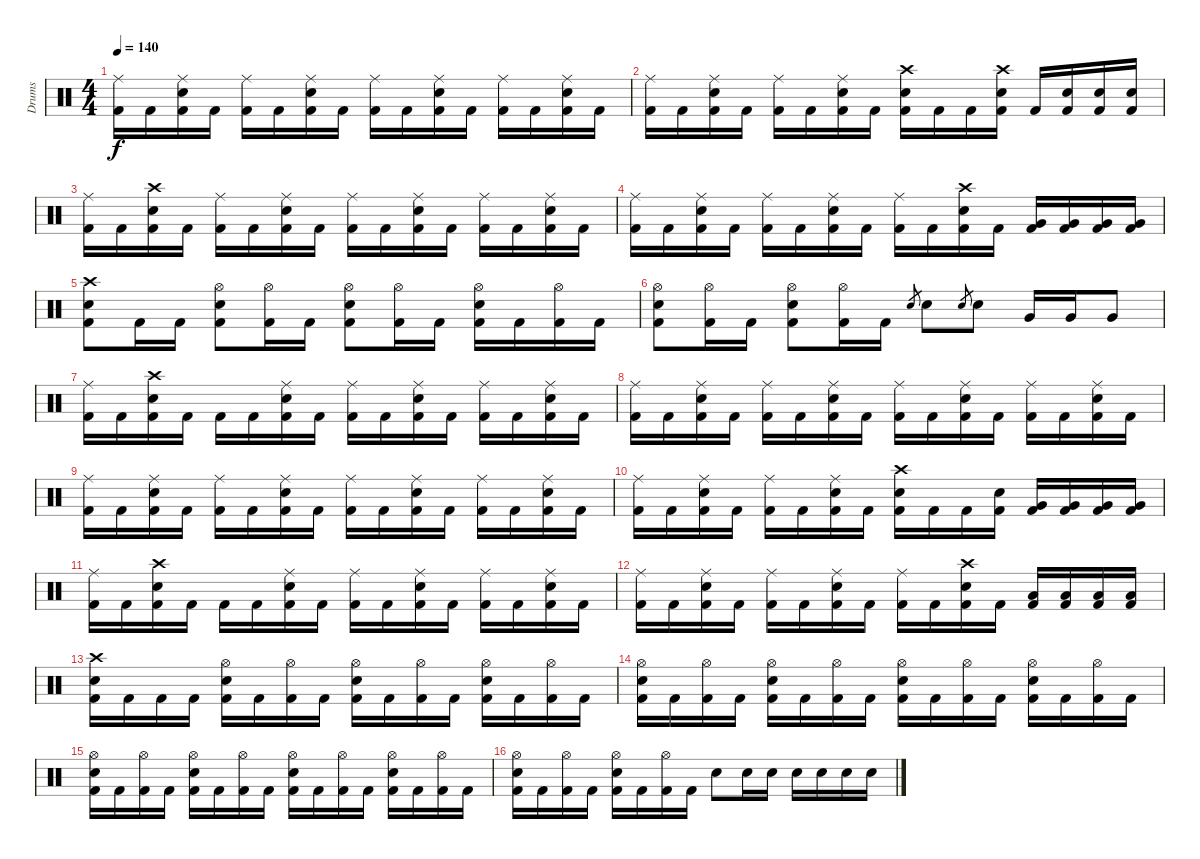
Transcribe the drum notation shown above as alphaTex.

\track ("Drums" "Drums") {instrument percussion}
\staff {score}
\articulation defaults
\ts (4 4)
\tempo 140
\clef neutral
\ks c
("Ride (middle)" "Kick (hit) 2").16{dy f} "Kick (hit) 2".16 ("Ride (middle)" "Electric Snare (hit)" "Kick (hit) 2").16 "Kick (hit) 2".16 ("Ride (middle)" "Kick (hit) 2").16 "Kick (hit) 2".16 ("Ride (middle)" "Electric Snare (hit)" "Kick (hit) 2").16 "Kick (hit) 2".16 ("Ride (middle)" "Kick (hit) 2").16 "Kick (hit) 2".16 ("Ride (middle)" "Electric Snare (hit)" "Kick (hit) 2").16 "Kick (hit) 2".16 ("Ride (middle)" "Kick (hit) 2").16 "Kick (hit) 2".16 ("Ride (middle)" "Electric Snare (hit)" "Kick (hit) 2").16 "Kick (hit) 2".16 |
("Ride (middle)" "Kick (hit) 2").16 "Kick (hit) 2".16 ("Ride (middle)" "Electric Snare (hit)" "Kick (hit) 2").16 "Kick (hit) 2".16 ("Ride (middle)" "Kick (hit) 2").16 "Kick (hit) 2".16 ("Ride (middle)" "Electric Snare (hit)" "Kick (hit) 2").16 "Kick (hit) 2".16 ("Crash high (hit)" "Electric Snare (hit)" "Kick (hit) 2").16 "Kick (hit) 2".16 "Kick (hit) 2".16 ("Crash high (hit)" "Electric Snare (hit)" "Kick (hit) 2").16 "Kick (hit) 2".16 ("Electric Snare (hit)" "Kick (hit) 2").16 ("Electric Snare (hit)" "Kick (hit) 2").16 ("Electric Snare (hit)" "Kick (hit) 2").16 |
("Ride (middle)" "Kick (hit) 2").16 "Kick (hit) 2".16 ("Crash high (hit)" "Electric Snare (hit)" "Kick (hit) 2").16 "Kick (hit) 2".16 ("Ride (middle)" "Kick (hit) 2").16 "Kick (hit) 2".16 ("Ride (middle)" "Electric Snare (hit)" "Kick (hit) 2").16 "Kick (hit) 2".16 ("Ride (middle)" "Kick (hit) 2").16 "Kick (hit) 2".16 ("Ride (middle)" "Electric Snare (hit)" "Kick (hit) 2").16 "Kick (hit) 2".16 ("Ride (middle)" "Kick (hit) 2").16 "Kick (hit) 2".16 ("Ride (middle)" "Electric Snare (hit)" "Kick (hit) 2").16 "Kick (hit) 2".16 |
("Ride (middle)" "Kick (hit) 2").16 "Kick (hit) 2".16 ("Ride (middle)" "Electric Snare (hit)" "Kick (hit) 2").16 "Kick (hit) 2".16 ("Ride (middle)" "Kick (hit) 2").16 "Kick (hit) 2".16 ("Ride (middle)" "Electric Snare (hit)" "Kick (hit) 2").16 "Kick (hit) 2".16 ("Ride (middle)" "Kick (hit) 2").16 "Kick (hit) 2".16 ("Crash high (hit)" "Electric Snare (hit)" "Kick (hit) 2").16 "Kick (hit) 2".16 ("Very Low Tom (hit)" "Kick (hit) 2").16 ("Very Low Tom (hit)" "Kick (hit) 2").16 ("Very Low Tom (hit)" "Kick (hit) 2").16 ("Very Low Tom (hit)" "Kick (hit) 2").16 |
("Crash high (hit)" "Electric Snare (hit)" "Kick (hit) 2").8 "Kick (hit) 2".16 "Kick (hit) 2".16 ("Hi-Hat (open)" "Electric Snare (hit)" "Kick (hit) 2").8 ("Hi-Hat (open)" "Kick (hit) 2").16 "Kick (hit) 2".16 ("Hi-Hat (open)" "Electric Snare (hit)" "Kick (hit) 2").8 ("Hi-Hat (open)" "Kick (hit) 2").16 "Kick (hit) 2".16 ("Hi-Hat (open)" "Electric Snare (hit)" "Kick (hit) 2").16 "Kick (hit) 2".16 ("Hi-Hat (open)" "Kick (hit) 2").16 "Kick (hit) 2".16 |
("Hi-Hat (open)" "Electric Snare (hit)" "Kick (hit) 2").8 ("Hi-Hat (open)" "Kick (hit) 2").16 "Kick (hit) 2".16 ("Hi-Hat (open)" "Electric Snare (hit)" "Kick (hit) 2").8 ("Hi-Hat (open)" "Kick (hit) 2").16 "Kick (hit) 2".16 "Electric Snare (hit)".8{gr} "Electric Snare (hit)".8 "Electric Snare (hit)".8{gr} "Electric Snare (hit)".8 "Very Low Tom (hit)".16 "Very Low Tom (hit)".16 "Very Low Tom (hit)".8 |
("Ride (middle)" "Kick (hit) 2").16 "Kick (hit) 2".16 ("Crash high (hit)" "Electric Snare (hit)" "Kick (hit) 2").16 "Kick (hit) 2".16 "Kick (hit) 2".16 "Kick (hit) 2".16 ("Ride (middle)" "Electric Snare (hit)" "Kick (hit) 2").16 "Kick (hit) 2".16 ("Ride (middle)" "Kick (hit) 2").16 "Kick (hit) 2".16 ("Ride (middle)" "Electric Snare (hit)" "Kick (hit) 2").16 "Kick (hit) 2".16 ("Ride (middle)" "Kick (hit) 2").16 "Kick (hit) 2".16 ("Ride (middle)" "Electric Snare (hit)" "Kick (hit) 2").16 "Kick (hit) 2".16 |
("Ride (middle)" "Kick (hit) 2").16 "Kick (hit) 2".16 ("Ride (middle)" "Electric Snare (hit)" "Kick (hit) 2").16 "Kick (hit) 2".16 ("Ride (middle)" "Kick (hit) 2").16 "Kick (hit) 2".16 ("Ride (middle)" "Electric Snare (hit)" "Kick (hit) 2").16 "Kick (hit) 2".16 ("Ride (middle)" "Kick (hit) 2").16 "Kick (hit) 2".16 ("Ride (middle)" "Electric Snare (hit)" "Kick (hit) 2").16 "Kick (hit) 2".16 ("Ride (middle)" "Kick (hit) 2").16 "Kick (hit) 2".16 ("Ride (middle)" "Electric Snare (hit)" "Kick (hit) 2").16 "Kick (hit) 2".16 |
("Ride (middle)" "Kick (hit) 2").16 "Kick (hit) 2".16 ("Ride (middle)" "Electric Snare (hit)" "Kick (hit) 2").16 "Kick (hit) 2".16 ("Ride (middle)" "Kick (hit) 2").16 "Kick (hit) 2".16 ("Ride (middle)" "Electric Snare (hit)" "Kick (hit) 2").16 "Kick (hit) 2".16 ("Ride (middle)" "Kick (hit) 2").16 "Kick (hit) 2".16 ("Ride (middle)" "Electric Snare (hit)" "Kick (hit) 2").16 "Kick (hit) 2".16 ("Ride (middle)" "Kick (hit) 2").16 "Kick (hit) 2".16 ("Ride (middle)" "Electric Snare (hit)" "Kick (hit) 2").16 "Kick (hit) 2".16 |
("Ride (middle)" "Kick (hit) 2").16 "Kick (hit) 2".16 ("Ride (middle)" "Electric Snare (hit)" "Kick (hit) 2").16 "Kick (hit) 2".16 ("Ride (middle)" "Kick (hit) 2").16 "Kick (hit) 2".16 ("Ride (middle)" "Electric Snare (hit)" "Kick (hit) 2").16 "Kick (hit) 2".16 ("Crash high (hit)" "Electric Snare (hit)" "Kick (hit) 2").16 "Kick (hit) 2".16 "Kick (hit) 2".16 ("Electric Snare (hit)" "Kick (hit) 2").16 ("Very Low Tom (hit)" "Kick (hit) 2").16 ("Very Low Tom (hit)" "Kick (hit) 2").16 ("Very Low Tom (hit)" "Kick (hit) 2").16 ("Very Low Tom (hit)" "Kick (hit) 2").16 |
("Ride (middle)" "Kick (hit) 2").16 "Kick (hit) 2".16 ("Crash high (hit)" "Electric Snare (hit)" "Kick (hit) 2").16 "Kick (hit) 2".16 "Kick (hit) 2".16 "Kick (hit) 2".16 ("Ride (middle)" "Electric Snare (hit)" "Kick (hit) 2").16 "Kick (hit) 2".16 ("Ride (middle)" "Kick (hit) 2").16 "Kick (hit) 2".16 ("Ride (middle)" "Electric Snare (hit)" "Kick (hit) 2").16 "Kick (hit) 2".16 ("Ride (middle)" "Kick (hit) 2").16 "Kick (hit) 2".16 ("Ride (middle)" "Electric Snare (hit)" "Kick (hit) 2").16 "Kick (hit) 2".16 |
("Ride (middle)" "Kick (hit) 2").16 "Kick (hit) 2".16 ("Ride (middle)" "Electric Snare (hit)" "Kick (hit) 2").16 "Kick (hit) 2".16 ("Ride (middle)" "Kick (hit) 2").16 "Kick (hit) 2".16 ("Ride (middle)" "Electric Snare (hit)" "Kick (hit) 2").16 "Kick (hit) 2".16 ("Ride (middle)" "Kick (hit) 2").16 "Kick (hit) 2".16 ("Crash high (hit)" "Electric Snare (hit)" "Kick (hit) 2").16 "Kick (hit) 2".16 ("Low Tom (hit)" "Kick (hit) 2").16 ("Low Tom (hit)" "Kick (hit) 2").16 ("Low Tom (hit)" "Kick (hit) 2").16 ("Low Tom (hit)" "Kick (hit) 2").16 |
("Crash high (hit)" "Electric Snare (hit)" "Kick (hit) 2").16 "Kick (hit) 2".16 "Kick (hit) 2".16 "Kick (hit) 2".16 ("Hi-Hat (open)" "Electric Snare (hit)" "Kick (hit) 2").16 "Kick (hit) 2".16 ("Hi-Hat (open)" "Kick (hit) 2").16 "Kick (hit) 2".16 ("Hi-Hat (open)" "Electric Snare (hit)" "Kick (hit) 2").16 "Kick (hit) 2".16 ("Hi-Hat (open)" "Kick (hit) 2").16 "Kick (hit) 2".16 ("Hi-Hat (open)" "Electric Snare (hit)" "Kick (hit) 2").16 "Kick (hit) 2".16 ("Hi-Hat (open)" "Kick (hit) 2").16 "Kick (hit) 2".16 |
("Hi-Hat (open)" "Electric Snare (hit)" "Kick (hit) 2").16 "Kick (hit) 2".16 ("Hi-Hat (open)" "Kick (hit) 2").16 "Kick (hit) 2".16 ("Hi-Hat (open)" "Electric Snare (hit)" "Kick (hit) 2").16 "Kick (hit) 2".16 ("Hi-Hat (open)" "Kick (hit) 2").16 "Kick (hit) 2".16 ("Hi-Hat (open)" "Electric Snare (hit)" "Kick (hit) 2").16 "Kick (hit) 2".16 ("Hi-Hat (open)" "Kick (hit) 2").16 "Kick (hit) 2".16 ("Hi-Hat (open)" "Electric Snare (hit)" "Kick (hit) 2").16 "Kick (hit) 2".16 ("Hi-Hat (open)" "Kick (hit) 2").16 "Kick (hit) 2".16 |
("Hi-Hat (open)" "Electric Snare (hit)" "Kick (hit) 2").16 "Kick (hit) 2".16 ("Hi-Hat (open)" "Kick (hit) 2").16 "Kick (hit) 2".16 ("Hi-Hat (open)" "Electric Snare (hit)" "Kick (hit) 2").16 "Kick (hit) 2".16 ("Hi-Hat (open)" "Kick (hit) 2").16 "Kick (hit) 2".16 ("Hi-Hat (open)" "Electric Snare (hit)" "Kick (hit) 2").16 "Kick (hit) 2".16 ("Hi-Hat (open)" "Kick (hit) 2").16 "Kick (hit) 2".16 ("Hi-Hat (open)" "Electric Snare (hit)" "Kick (hit) 2").16 "Kick (hit) 2".16 ("Hi-Hat (open)" "Kick (hit) 2").16 "Kick (hit) 2".16 |
("Hi-Hat (open)" "Electric Snare (hit)" "Kick (hit) 2").16 "Kick (hit) 2".16 ("Hi-Hat (open)" "Kick (hit) 2").16 "Kick (hit) 2".16 ("Hi-Hat (open)" "Electric Snare (hit)" "Kick (hit) 2").16 "Kick (hit) 2".16 ("Hi-Hat (open)" "Kick (hit) 2").16 "Kick (hit) 2".16 "Electric Snare (hit)".8 "Electric Snare (hit)".16 "Electric Snare (hit)".16 "Electric Snare (hit)".16 "Electric Snare (hit)".16 "Electric Snare (hit)".16 "Electric Snare (hit)".16
